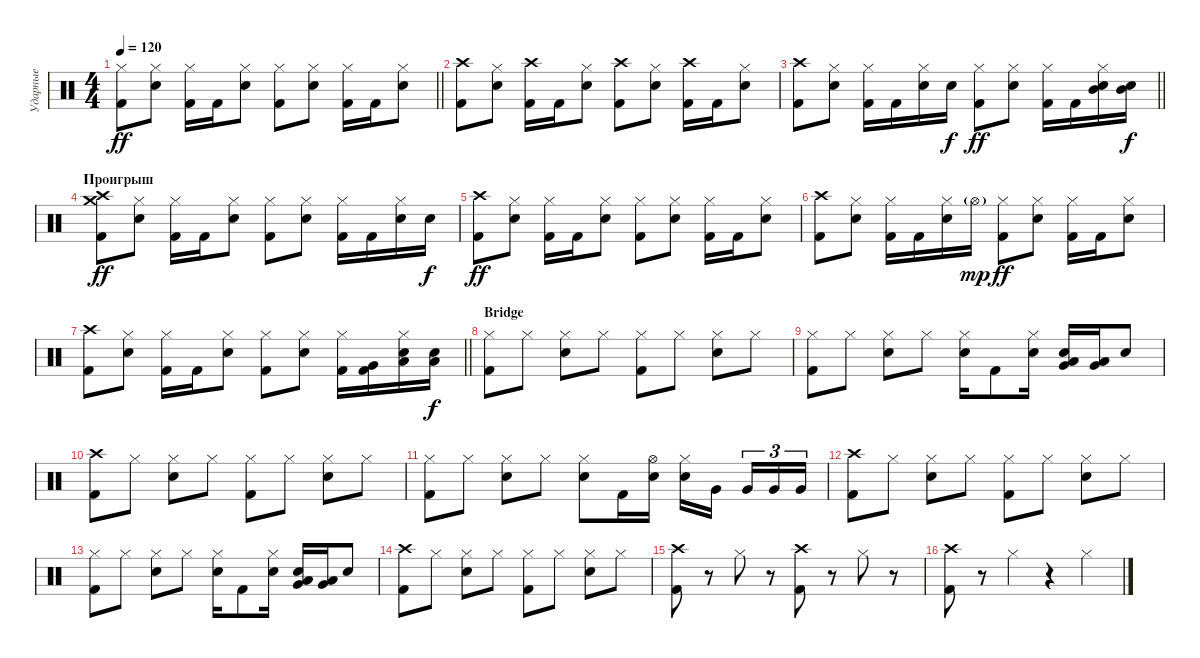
\track ("Ударные" "Ударные") {instrument percussion}
\staff {score}
\articulation defaults
\ts (4 4)
\tempo 120
\clef neutral
\barLineRight lightlight
\ks c
("Hi-Hat (closed)" "Kick (hit) 2").8{dy ff} ("Hi-Hat (closed)" "Electric Snare (hit)").8 ("Hi-Hat (closed)" "Kick (hit) 2").16 "Kick (hit) 2".16 ("Hi-Hat (closed)" "Electric Snare (hit)").8 ("Hi-Hat (closed)" "Kick (hit) 2").8 ("Hi-Hat (closed)" "Electric Snare (hit)").8 ("Hi-Hat (closed)" "Kick (hit) 2").16 "Kick (hit) 2".16 ("Hi-Hat (closed)" "Electric Snare (hit)").8 |
("Crash high (hit)" "Kick (hit) 2").8 ("Hi-Hat (closed)" "Electric Snare (hit)").8 ("Crash high (hit)" "Kick (hit) 2").16 "Kick (hit) 2".16 ("Hi-Hat (closed)" "Electric Snare (hit)").8 ("Crash high (hit)" "Kick (hit) 2").8 ("Hi-Hat (closed)" "Electric Snare (hit)").8 ("Crash high (hit)" "Kick (hit) 2").16 "Kick (hit) 2".16 ("Hi-Hat (closed)" "Electric Snare (hit)").8 |
\barLineRight lightlight
("Crash high (hit)" "Kick (hit) 2").8 ("Hi-Hat (closed)" "Electric Snare (hit)").8 ("Hi-Hat (closed)" "Kick (hit) 2").16 "Kick (hit) 2".16 ("Hi-Hat (closed)" "Electric Snare (hit)").16 "Electric Snare (hit)".16{dy f} ("Hi-Hat (closed)" "Kick (hit) 2").8{dy ff} ("Hi-Hat (closed)" "Electric Snare (hit)").8 ("Hi-Hat (closed)" "Kick (hit) 2").16 "Kick (hit) 2".16 ("Hi-Hat (closed)" "Electric Snare (hit)" "Mid Tom (hit)").16 ("Electric Snare (hit)" "Mid Tom (hit)").16{dy f} |
\section ("" "Проигрыш")
("Crash high (hit)" "Crash medium (hit)" "Kick (hit) 2").8{dy ff} ("Hi-Hat (closed)" "Electric Snare (hit)").8 ("Hi-Hat (closed)" "Kick (hit) 2").16 "Kick (hit) 2".16 ("Hi-Hat (closed)" "Electric Snare (hit)").8 ("Hi-Hat (closed)" "Kick (hit) 2").8 ("Hi-Hat (closed)" "Electric Snare (hit)").8 ("Hi-Hat (closed)" "Kick (hit) 2").16 "Kick (hit) 2".16 ("Hi-Hat (closed)" "Electric Snare (hit)").16 "Electric Snare (hit)".16{dy f} |
("Crash high (hit)" "Kick (hit) 2").8{dy ff} ("Hi-Hat (closed)" "Electric Snare (hit)").8 ("Hi-Hat (closed)" "Kick (hit) 2").16 "Kick (hit) 2".16 ("Hi-Hat (closed)" "Electric Snare (hit)").8 ("Hi-Hat (closed)" "Kick (hit) 2").8 ("Hi-Hat (closed)" "Electric Snare (hit)").8 ("Hi-Hat (closed)" "Kick (hit) 2").16 "Kick (hit) 2".16 ("Hi-Hat (closed)" "Electric Snare (hit)").8 |
("Crash high (hit)" "Kick (hit) 2").8 ("Hi-Hat (closed)" "Electric Snare (hit)").8 ("Hi-Hat (closed)" "Kick (hit) 2").16 "Kick (hit) 2".16 ("Hi-Hat (closed)" "Electric Snare (hit)").16 "Hi-Hat (open)"{g}.16{dy mp} ("Hi-Hat (closed)" "Kick (hit) 2").8{dy ff} ("Hi-Hat (closed)" "Electric Snare (hit)").8 ("Hi-Hat (closed)" "Kick (hit) 2").16 "Kick (hit) 2".16 ("Hi-Hat (closed)" "Electric Snare (hit)").8 |
\barLineRight lightlight
("Crash high (hit)" "Kick (hit) 2").8 ("Hi-Hat (closed)" "Electric Snare (hit)").8 ("Hi-Hat (closed)" "Kick (hit) 2").16 "Kick (hit) 2".16 ("Hi-Hat (closed)" "Electric Snare (hit)").8 ("Hi-Hat (closed)" "Kick (hit) 2").8 ("Hi-Hat (closed)" "Electric Snare (hit)").8 ("Hi-Hat (closed)" "Kick (hit) 2").16 ("Very Low Tom (hit)" "Kick (hit) 2").16 ("Hi-Hat (closed)" "Electric Snare (hit)" "Low Floor Tom (hit)").16 ("Snare (hit) 2" "Low Tom (hit)").16{dy f} |
\section ("" "Bridge")
("Hi-Hat (closed)" "Kick (hit) 2").8 "Hi-Hat (closed)".8 ("Hi-Hat (closed)" "Electric Snare (hit)").8 "Hi-Hat (closed)".8 ("Hi-Hat (closed)" "Kick (hit) 2").8 "Hi-Hat (closed)".8 ("Hi-Hat (closed)" "Electric Snare (hit)").8 "Hi-Hat (closed)".8 |
("Hi-Hat (closed)" "Kick (hit) 2").8 "Hi-Hat (closed)".8 ("Hi-Hat (closed)" "Electric Snare (hit)").8 "Hi-Hat (closed)".8 ("Hi-Hat (closed)" "Electric Snare (hit)").16 "Kick (hit) 2".8 ("Hi-Hat (closed)" "Electric Snare (hit)").16 ("Low Tom (hit)" "Very Low Tom (hit)" "Electric Snare (hit)").16 ("Low Tom (hit)" "Very Low Tom (hit)").16 "Electric Snare (hit)".8 |
("Crash high (hit)" "Kick (hit) 2").8 "Hi-Hat (closed)".8 ("Hi-Hat (closed)" "Electric Snare (hit)").8 "Hi-Hat (closed)".8 ("Hi-Hat (closed)" "Kick (hit) 2").8 "Hi-Hat (closed)".8 ("Hi-Hat (closed)" "Electric Snare (hit)").8 "Hi-Hat (closed)".8 |
("Hi-Hat (closed)" "Kick (hit) 2").8 "Hi-Hat (closed)".8 ("Hi-Hat (closed)" "Electric Snare (hit)").8 "Hi-Hat (closed)".8 ("Hi-Hat (closed)" "Electric Snare (hit)").8 "Kick (hit) 2".16 ("Hi-Hat (open)" "Electric Snare (hit)").16 ("Hi-Hat (closed)" "Electric Snare (hit)").16 "Very Low Tom (hit)".16{beam splitsecondary} "Very Low Tom (hit)".16{tu (3 2)} "Very Low Tom (hit)".16{tu (3 2)} "Very Low Tom (hit)".16{tu (3 2)} |
("Crash high (hit)" "Kick (hit) 2").8 "Hi-Hat (closed)".8 ("Hi-Hat (closed)" "Electric Snare (hit)").8 "Hi-Hat (closed)".8 ("Hi-Hat (closed)" "Kick (hit) 2").8 "Hi-Hat (closed)".8 ("Hi-Hat (closed)" "Electric Snare (hit)").8 "Hi-Hat (closed)".8 |
("Hi-Hat (closed)" "Kick (hit) 2").8 "Hi-Hat (closed)".8 ("Hi-Hat (closed)" "Electric Snare (hit)").8 "Hi-Hat (closed)".8 ("Hi-Hat (closed)" "Electric Snare (hit)").16 "Kick (hit) 2".8 ("Hi-Hat (closed)" "Electric Snare (hit)").16 ("Low Tom (hit)" "Very Low Tom (hit)" "Electric Snare (hit)").16 ("Low Tom (hit)" "Very Low Tom (hit)").16 "Electric Snare (hit)".8 |
("Crash high (hit)" "Kick (hit) 2").8 "Hi-Hat (closed)".8 ("Hi-Hat (closed)" "Electric Snare (hit)").8 "Hi-Hat (closed)".8 ("Hi-Hat (closed)" "Kick (hit) 2").8 "Hi-Hat (closed)".8 ("Hi-Hat (closed)" "Electric Snare (hit)").8 "Hi-Hat (closed)".8 |
("Crash high (hit)" "Kick (hit) 2").8 r.8 "Hi-Hat (closed)".8 r.8 ("Crash high (hit)" "Kick (hit) 2").8 r.8 "Hi-Hat (closed)".8 r.8 |
("Crash high (hit)" "Kick (hit) 2").8 r.8 "Hi-Hat (closed)".4 r.4 "Hi-Hat (closed)".4
